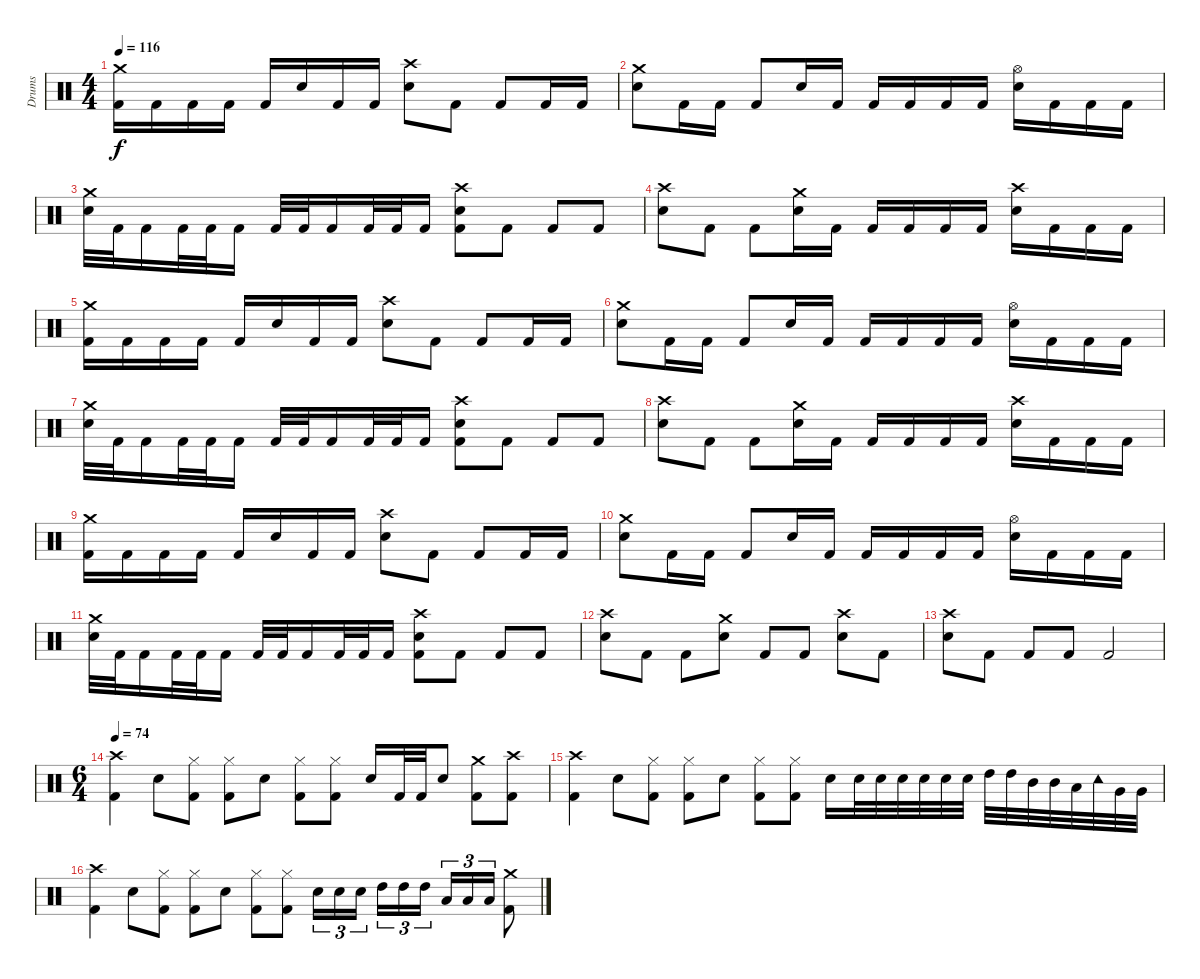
\track ("Drums" "Drums") {instrument percussion}
\staff {score}
\articulation defaults
\ts (4 4)
\tempo 116
\clef neutral
\ks c
("Kick (hit) 2" "Crash medium (hit)").16{dy f} "Kick (hit) 2".16 "Kick (hit) 2".16 "Kick (hit) 2".16 "Kick (hit) 2".16 "Snare (hit) 2".16 "Kick (hit) 2".16 "Kick (hit) 2".16 ("Snare (hit) 2" "Crash high (hit)").8 "Kick (hit) 2".8 "Kick (hit) 2".8 "Kick (hit) 2".16 "Kick (hit) 2".16 |
("Snare (hit) 2" "Crash medium (hit)").8 "Kick (hit) 2".16 "Kick (hit) 2".16 "Kick (hit) 2".8 "Snare (hit) 2".16 "Kick (hit) 2".16 "Kick (hit) 2".16 "Kick (hit) 2".16 "Kick (hit) 2".16 "Kick (hit) 2".16 ("Snare (hit) 2" "Hi-Hat (open)").16 "Kick (hit) 2".16 "Kick (hit) 2".16 "Kick (hit) 2".16 |
("Snare (hit) 2" "Crash medium (hit)").32 "Kick (hit) 2".32 "Kick (hit) 2".16 "Kick (hit) 2".32 "Kick (hit) 2".32 "Kick (hit) 2".16 "Kick (hit) 2".32 "Kick (hit) 2".32 "Kick (hit) 2".16 "Kick (hit) 2".32 "Kick (hit) 2".32 "Kick (hit) 2".16 ("Kick (hit) 2" "Snare (hit) 2" "Crash high (hit)").8 "Kick (hit) 2".8 "Kick (hit) 2".8 "Kick (hit) 2".8 |
("Snare (hit) 2" "Crash high (hit)").8 "Kick (hit) 2".8 "Kick (hit) 2".8 ("Snare (hit) 2" "Crash medium (hit)").16 "Kick (hit) 2".16 "Kick (hit) 2".16 "Kick (hit) 2".16 "Kick (hit) 2".16 "Kick (hit) 2".16 ("Snare (hit) 2" "Crash high (hit)").16 "Kick (hit) 2".16 "Kick (hit) 2".16 "Kick (hit) 2".16 |
("Kick (hit) 2" "Crash medium (hit)").16 "Kick (hit) 2".16 "Kick (hit) 2".16 "Kick (hit) 2".16 "Kick (hit) 2".16 "Snare (hit) 2".16 "Kick (hit) 2".16 "Kick (hit) 2".16 ("Snare (hit) 2" "Crash high (hit)").8 "Kick (hit) 2".8 "Kick (hit) 2".8 "Kick (hit) 2".16 "Kick (hit) 2".16 |
("Snare (hit) 2" "Crash medium (hit)").8 "Kick (hit) 2".16 "Kick (hit) 2".16 "Kick (hit) 2".8 "Snare (hit) 2".16 "Kick (hit) 2".16 "Kick (hit) 2".16 "Kick (hit) 2".16 "Kick (hit) 2".16 "Kick (hit) 2".16 ("Snare (hit) 2" "Hi-Hat (open)").16 "Kick (hit) 2".16 "Kick (hit) 2".16 "Kick (hit) 2".16 |
("Snare (hit) 2" "Crash medium (hit)").32 "Kick (hit) 2".32 "Kick (hit) 2".16 "Kick (hit) 2".32 "Kick (hit) 2".32 "Kick (hit) 2".16 "Kick (hit) 2".32 "Kick (hit) 2".32 "Kick (hit) 2".16 "Kick (hit) 2".32 "Kick (hit) 2".32 "Kick (hit) 2".16 ("Kick (hit) 2" "Snare (hit) 2" "Crash high (hit)").8 "Kick (hit) 2".8 "Kick (hit) 2".8 "Kick (hit) 2".8 |
("Snare (hit) 2" "Crash high (hit)").8 "Kick (hit) 2".8 "Kick (hit) 2".8 ("Snare (hit) 2" "Crash medium (hit)").16 "Kick (hit) 2".16 "Kick (hit) 2".16 "Kick (hit) 2".16 "Kick (hit) 2".16 "Kick (hit) 2".16 ("Snare (hit) 2" "Crash high (hit)").16 "Kick (hit) 2".16 "Kick (hit) 2".16 "Kick (hit) 2".16 |
("Kick (hit) 2" "Crash medium (hit)").16 "Kick (hit) 2".16 "Kick (hit) 2".16 "Kick (hit) 2".16 "Kick (hit) 2".16 "Snare (hit) 2".16 "Kick (hit) 2".16 "Kick (hit) 2".16 ("Snare (hit) 2" "Crash high (hit)").8 "Kick (hit) 2".8 "Kick (hit) 2".8 "Kick (hit) 2".16 "Kick (hit) 2".16 |
("Snare (hit) 2" "Crash medium (hit)").8 "Kick (hit) 2".16 "Kick (hit) 2".16 "Kick (hit) 2".8 "Snare (hit) 2".16 "Kick (hit) 2".16 "Kick (hit) 2".16 "Kick (hit) 2".16 "Kick (hit) 2".16 "Kick (hit) 2".16 ("Snare (hit) 2" "Hi-Hat (open)").16 "Kick (hit) 2".16 "Kick (hit) 2".16 "Kick (hit) 2".16 |
("Snare (hit) 2" "Crash medium (hit)").32 "Kick (hit) 2".32 "Kick (hit) 2".16 "Kick (hit) 2".32 "Kick (hit) 2".32 "Kick (hit) 2".16 "Kick (hit) 2".32 "Kick (hit) 2".32 "Kick (hit) 2".16 "Kick (hit) 2".32 "Kick (hit) 2".32 "Kick (hit) 2".16 ("Kick (hit) 2" "Snare (hit) 2" "Crash high (hit)").8 "Kick (hit) 2".8 "Kick (hit) 2".8 "Kick (hit) 2".8 |
("Snare (hit) 2" "Crash high (hit)").8 "Kick (hit) 2".8 "Kick (hit) 2".8 ("Snare (hit) 2" "Crash medium (hit)").8 "Kick (hit) 2".8 "Kick (hit) 2".8 ("Snare (hit) 2" "Crash high (hit)").8 "Kick (hit) 2".8 |
("Snare (hit) 2" "Crash high (hit)").8 "Kick (hit) 2".8 "Kick (hit) 2".8 "Kick (hit) 2".8 "Kick (hit) 2".2 |
\ts (6 4)
\tempo 74
("Kick (hit) 2" "Crash high (hit)").4 "Snare (hit) 2".8 ("Kick (hit) 2" "Hi-Hat (closed)").8 ("Kick (hit) 2" "Hi-Hat (closed)").8 "Snare (hit) 2".8 ("Kick (hit) 2" "Hi-Hat (closed)").8 ("Kick (hit) 2" "Hi-Hat (closed)").8 "Snare (hit) 2".16 "Kick (hit) 2".32 "Kick (hit) 2".32 "Snare (hit) 2".8 ("Kick (hit) 2" "Crash medium (hit)").8 ("Kick (hit) 2" "Crash high (hit)").8 |
("Kick (hit) 2" "Crash high (hit)").4 "Snare (hit) 2".8 ("Kick (hit) 2" "Hi-Hat (closed)").8 ("Kick (hit) 2" "Hi-Hat (closed)").8 "Snare (hit) 2".8 ("Kick (hit) 2" "Hi-Hat (closed)").8 ("Kick (hit) 2" "Hi-Hat (closed)").8 "Snare (hit) 2".16 "Snare (hit) 2".32 "Snare (hit) 2".32 "Snare (hit) 2".32 "Snare (hit) 2".32 "Snare (hit) 2".32 "Snare (hit) 2".32 "High Tom (hit)".32 "High Tom (hit)".32 "Mid Tom (hit)".32 "Mid Tom (hit)".32 "Low Tom (hit)".32 "Tambourine (hit)".32 "Very Low Tom (hit)".32 "Very Low Tom (hit)".32 |
("Kick (hit) 2" "Crash high (hit)").4 "Snare (hit) 2".8 ("Kick (hit) 2" "Hi-Hat (closed)").8 ("Kick (hit) 2" "Hi-Hat (closed)").8 "Snare (hit) 2".8 ("Kick (hit) 2" "Hi-Hat (closed)").8 ("Kick (hit) 2" "Hi-Hat (closed)").8 "Snare (hit) 2".16{tu (3 2)} "Snare (hit) 2".16{tu (3 2)} "Snare (hit) 2".16{tu (3 2)} "High Tom (hit)".16{tu (3 2)} "High Tom (hit)".16{tu (3 2)} "High Tom (hit)".16{tu (3 2)} "Low Tom (hit)".16{tu (3 2)} "Low Tom (hit)".16{tu (3 2)} "Low Tom (hit)".16{tu (3 2)} ("Kick (hit) 2" "Crash medium (hit)").8
